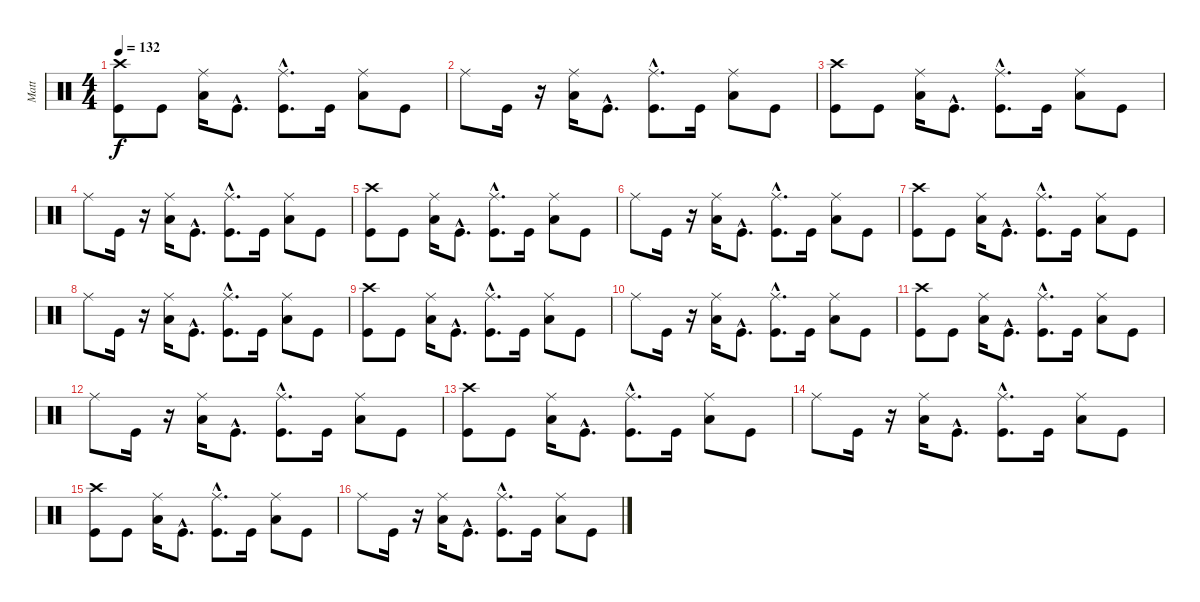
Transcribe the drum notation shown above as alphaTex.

\track ("Matt" "Matt") {instrument percussion}
\staff {score}
\articulation defaults
\ts (4 4)
\tempo 132
\clef neutral
\ks c
("Crash high (hit)" "Kick (hit)").8{dy f} "Kick (hit)".8 ("Ride (middle)" "Low Tom (hit)").16 "Kick (hit)"{hac}.8{d} ("Kick (hit)"{hac} "Ride (middle)").8{d} "Kick (hit)".16 ("Ride (middle)" "Low Tom (hit)").8 "Kick (hit)".8 |
"Ride (middle)".8 "Kick (hit)".16 r.16 ("Ride (middle)" "Low Tom (hit)").16 "Kick (hit)"{hac}.8{d} ("Ride (middle)" "Kick (hit)"{hac}).8{d} "Kick (hit)".16 ("Ride (middle)" "Low Tom (hit)").8 "Kick (hit)".8 |
("Crash high (hit)" "Kick (hit)").8 "Kick (hit)".8 ("Ride (middle)" "Low Tom (hit)").16 "Kick (hit)"{hac}.8{d} ("Kick (hit)"{hac} "Ride (middle)").8{d} "Kick (hit)".16 ("Low Tom (hit)" "Ride (middle)").8 "Kick (hit)".8 |
"Ride (middle)".8 "Kick (hit)".16 r.16 ("Low Tom (hit)" "Ride (middle)").16 "Kick (hit)"{hac}.8{d} ("Ride (middle)" "Kick (hit)"{hac}).8{d} "Kick (hit)".16 ("Ride (middle)" "Low Tom (hit)").8 "Kick (hit)".8 |
("Crash high (hit)" "Kick (hit)").8 "Kick (hit)".8 ("Ride (middle)" "Low Tom (hit)").16 "Kick (hit)"{hac}.8{d} ("Ride (middle)" "Kick (hit)"{hac}).8{d} "Kick (hit)".16 ("Ride (middle)" "Low Tom (hit)").8 "Kick (hit)".8 |
"Ride (middle)".8 "Kick (hit)".16 r.16 ("Ride (middle)" "Low Tom (hit)").16 "Kick (hit)"{hac}.8{d} ("Ride (middle)" "Kick (hit)"{hac}).8{d} "Kick (hit)".16 ("Low Tom (hit)" "Ride (middle)").8 "Kick (hit)".8 |
("Kick (hit)" "Crash high (hit)").8 "Kick (hit)".8 ("Ride (middle)" "Low Tom (hit)").16 "Kick (hit)"{hac}.8{d} ("Kick (hit)"{hac} "Ride (middle)").8{d} "Kick (hit)".16 ("Low Tom (hit)" "Ride (middle)").8 "Kick (hit)".8 |
"Ride (middle)".8 "Kick (hit)".16 r.16 ("Ride (middle)" "Low Tom (hit)").16 "Kick (hit)"{hac}.8{d} ("Kick (hit)"{hac} "Ride (middle)").8{d} "Kick (hit)".16 ("Low Tom (hit)" "Ride (middle)").8 "Kick (hit)".8 |
("Crash high (hit)" "Kick (hit)").8 "Kick (hit)".8 ("Low Tom (hit)" "Ride (middle)").16 "Kick (hit)"{hac}.8{d} ("Ride (middle)" "Kick (hit)"{hac}).8{d} "Kick (hit)".16 ("Ride (middle)" "Low Tom (hit)").8 "Kick (hit)".8 |
"Ride (middle)".8 "Kick (hit)".16 r.16 ("Ride (middle)" "Low Tom (hit)").16 "Kick (hit)"{hac}.8{d} ("Kick (hit)"{hac} "Ride (middle)").8{d} "Kick (hit)".16 ("Ride (middle)" "Low Tom (hit)").8 "Kick (hit)".8 |
("Crash high (hit)" "Kick (hit)").8 "Kick (hit)".8 ("Low Tom (hit)" "Ride (middle)").16 "Kick (hit)"{hac}.8{d} ("Kick (hit)"{hac} "Ride (middle)").8{d} "Kick (hit)".16 ("Low Tom (hit)" "Ride (middle)").8 "Kick (hit)".8 |
"Ride (middle)".8 "Kick (hit)".16 r.16 ("Ride (middle)" "Low Tom (hit)").16 "Kick (hit)"{hac}.8{d} ("Ride (middle)" "Kick (hit)"{hac}).8{d} "Kick (hit)".16 ("Low Tom (hit)" "Ride (middle)").8 "Kick (hit)".8 |
("Crash high (hit)" "Kick (hit)").8 "Kick (hit)".8 ("Ride (middle)" "Low Tom (hit)").16 "Kick (hit)"{hac}.8{d} ("Kick (hit)"{hac} "Ride (middle)").8{d} "Kick (hit)".16 ("Low Tom (hit)" "Ride (middle)").8 "Kick (hit)".8 |
"Ride (middle)".8 "Kick (hit)".16 r.16 ("Ride (middle)" "Low Tom (hit)").16 "Kick (hit)"{hac}.8{d} ("Ride (middle)" "Kick (hit)"{hac}).8{d} "Kick (hit)".16 ("Low Tom (hit)" "Ride (middle)").8 "Kick (hit)".8 |
("Kick (hit)" "Crash high (hit)").8 "Kick (hit)".8 ("Ride (middle)" "Low Tom (hit)").16 "Kick (hit)"{hac}.8{d} ("Ride (middle)" "Kick (hit)"{hac}).8{d} "Kick (hit)".16 ("Ride (middle)" "Low Tom (hit)").8 "Kick (hit)".8 |
"Ride (middle)".8 "Kick (hit)".16 r.16 ("Ride (middle)" "Low Tom (hit)").16 "Kick (hit)"{hac}.8{d} ("Ride (middle)" "Kick (hit)"{hac}).8{d} "Kick (hit)".16 ("Low Tom (hit)" "Ride (middle)").8 "Kick (hit)".8
